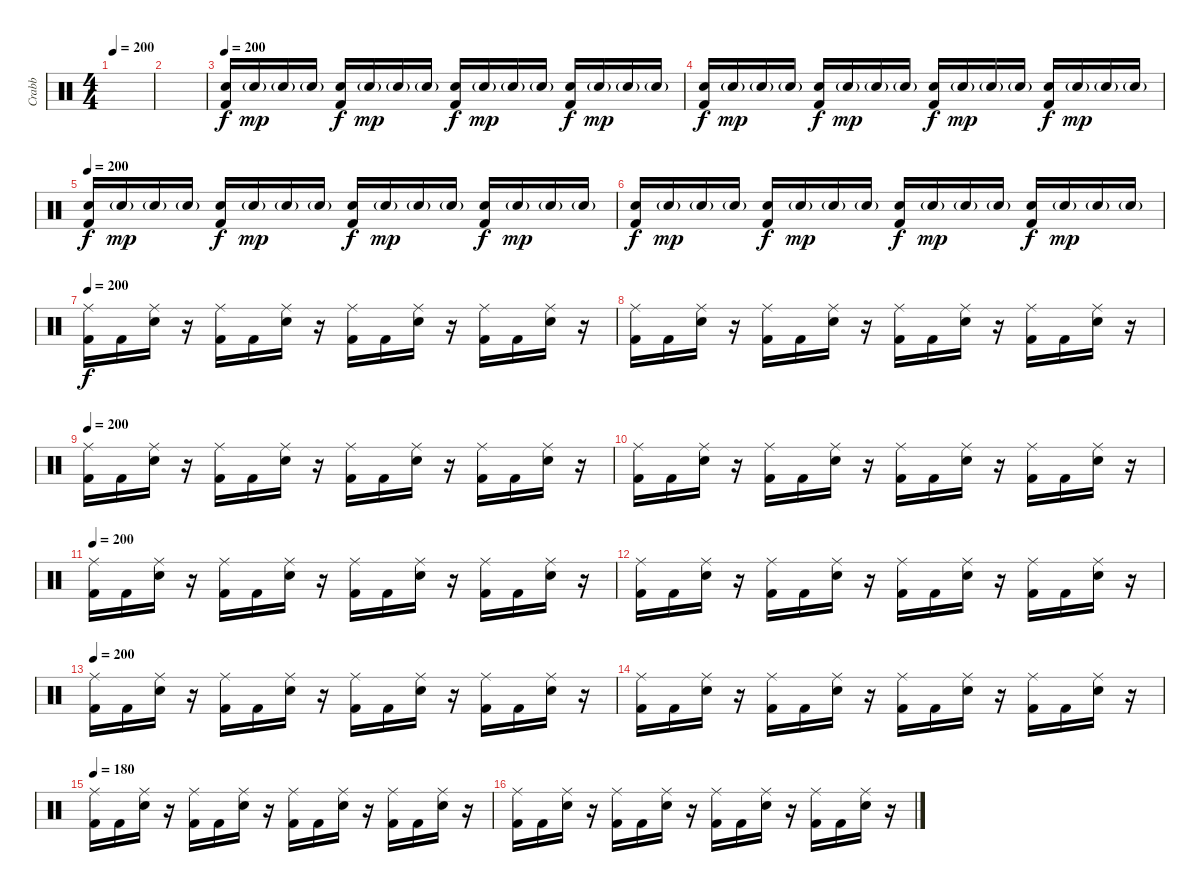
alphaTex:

\track ("Crabb" "Crabb") {instrument percussion}
\staff {score}
\articulation defaults
\ts (4 4)
\tempo 200
\clef neutral
\ks c
|
|
\tempo 200
("Electric Snare (hit)" "Kick (hit) 2").16 "Electric Snare (hit)"{g}.16{dy mp} "Electric Snare (hit)"{g}.16 "Electric Snare (hit)"{g}.16 ("Electric Snare (hit)" "Kick (hit) 2").16{dy f} "Electric Snare (hit)"{g}.16{dy mp} "Electric Snare (hit)"{g}.16 "Electric Snare (hit)"{g}.16 ("Electric Snare (hit)" "Kick (hit) 2").16{dy f} "Electric Snare (hit)"{g}.16{dy mp} "Electric Snare (hit)"{g}.16 "Electric Snare (hit)"{g}.16 ("Electric Snare (hit)" "Kick (hit) 2").16{dy f} "Electric Snare (hit)"{g}.16{dy mp} "Electric Snare (hit)"{g}.16 "Electric Snare (hit)"{g}.16 |
("Electric Snare (hit)" "Kick (hit) 2").16{dy f} "Electric Snare (hit)"{g}.16{dy mp} "Electric Snare (hit)"{g}.16 "Electric Snare (hit)"{g}.16 ("Electric Snare (hit)" "Kick (hit) 2").16{dy f} "Electric Snare (hit)"{g}.16{dy mp} "Electric Snare (hit)"{g}.16 "Electric Snare (hit)"{g}.16 ("Electric Snare (hit)" "Kick (hit) 2").16{dy f} "Electric Snare (hit)"{g}.16{dy mp} "Electric Snare (hit)"{g}.16 "Electric Snare (hit)"{g}.16 ("Electric Snare (hit)" "Kick (hit) 2").16{dy f} "Electric Snare (hit)"{g}.16{dy mp} "Electric Snare (hit)"{g}.16 "Electric Snare (hit)"{g}.16 |
\tempo 200
("Electric Snare (hit)" "Kick (hit) 2").16{dy f} "Electric Snare (hit)"{g}.16{dy mp} "Electric Snare (hit)"{g}.16 "Electric Snare (hit)"{g}.16 ("Electric Snare (hit)" "Kick (hit) 2").16{dy f} "Electric Snare (hit)"{g}.16{dy mp} "Electric Snare (hit)"{g}.16 "Electric Snare (hit)"{g}.16 ("Electric Snare (hit)" "Kick (hit) 2").16{dy f} "Electric Snare (hit)"{g}.16{dy mp} "Electric Snare (hit)"{g}.16 "Electric Snare (hit)"{g}.16 ("Electric Snare (hit)" "Kick (hit) 2").16{dy f} "Electric Snare (hit)"{g}.16{dy mp} "Electric Snare (hit)"{g}.16 "Electric Snare (hit)"{g}.16 |
("Electric Snare (hit)" "Kick (hit) 2").16{dy f} "Electric Snare (hit)"{g}.16{dy mp} "Electric Snare (hit)"{g}.16 "Electric Snare (hit)"{g}.16 ("Electric Snare (hit)" "Kick (hit) 2").16{dy f} "Electric Snare (hit)"{g}.16{dy mp} "Electric Snare (hit)"{g}.16 "Electric Snare (hit)"{g}.16 ("Electric Snare (hit)" "Kick (hit) 2").16{dy f} "Electric Snare (hit)"{g}.16{dy mp} "Electric Snare (hit)"{g}.16 "Electric Snare (hit)"{g}.16 ("Electric Snare (hit)" "Kick (hit) 2").16{dy f} "Electric Snare (hit)"{g}.16{dy mp} "Electric Snare (hit)"{g}.16 "Electric Snare (hit)"{g}.16 |
\tempo 200
("Ride (middle)" "Kick (hit) 2").16{dy f} "Kick (hit) 2".16 ("Ride (middle)" "Electric Snare (hit)").16 r.16 ("Ride (middle)" "Kick (hit) 2").16 "Kick (hit) 2".16 ("Ride (middle)" "Electric Snare (hit)").16 r.16 ("Ride (middle)" "Kick (hit) 2").16 "Kick (hit) 2".16 ("Ride (middle)" "Electric Snare (hit)").16 r.16 ("Ride (middle)" "Kick (hit) 2").16 "Kick (hit) 2".16 ("Ride (middle)" "Electric Snare (hit)").16 r.16 |
("Ride (middle)" "Kick (hit) 2").16 "Kick (hit) 2".16 ("Ride (middle)" "Electric Snare (hit)").16 r.16 ("Ride (middle)" "Kick (hit) 2").16 "Kick (hit) 2".16 ("Ride (middle)" "Electric Snare (hit)").16 r.16 ("Ride (middle)" "Kick (hit) 2").16 "Kick (hit) 2".16 ("Ride (middle)" "Electric Snare (hit)").16 r.16 ("Ride (middle)" "Kick (hit) 2").16 "Kick (hit) 2".16 ("Ride (middle)" "Electric Snare (hit)").16 r.16 |
\tempo 200
("Ride (middle)" "Kick (hit) 2").16 "Kick (hit) 2".16 ("Ride (middle)" "Electric Snare (hit)").16 r.16 ("Ride (middle)" "Kick (hit) 2").16 "Kick (hit) 2".16 ("Ride (middle)" "Electric Snare (hit)").16 r.16 ("Ride (middle)" "Kick (hit) 2").16 "Kick (hit) 2".16 ("Ride (middle)" "Electric Snare (hit)").16 r.16 ("Ride (middle)" "Kick (hit) 2").16 "Kick (hit) 2".16 ("Ride (middle)" "Electric Snare (hit)").16 r.16 |
("Ride (middle)" "Kick (hit) 2").16 "Kick (hit) 2".16 ("Ride (middle)" "Electric Snare (hit)").16 r.16 ("Ride (middle)" "Kick (hit) 2").16 "Kick (hit) 2".16 ("Ride (middle)" "Electric Snare (hit)").16 r.16 ("Ride (middle)" "Kick (hit) 2").16 "Kick (hit) 2".16 ("Ride (middle)" "Electric Snare (hit)").16 r.16 ("Ride (middle)" "Kick (hit) 2").16 "Kick (hit) 2".16 ("Ride (middle)" "Electric Snare (hit)").16 r.16 |
\tempo 200
("Ride (middle)" "Kick (hit) 2").16 "Kick (hit) 2".16 ("Ride (middle)" "Electric Snare (hit)").16 r.16 ("Ride (middle)" "Kick (hit) 2").16 "Kick (hit) 2".16 ("Ride (middle)" "Electric Snare (hit)").16 r.16 ("Ride (middle)" "Kick (hit) 2").16 "Kick (hit) 2".16 ("Ride (middle)" "Electric Snare (hit)").16 r.16 ("Ride (middle)" "Kick (hit) 2").16 "Kick (hit) 2".16 ("Ride (middle)" "Electric Snare (hit)").16 r.16 |
("Ride (middle)" "Kick (hit) 2").16 "Kick (hit) 2".16 ("Ride (middle)" "Electric Snare (hit)").16 r.16 ("Ride (middle)" "Kick (hit) 2").16 "Kick (hit) 2".16 ("Ride (middle)" "Electric Snare (hit)").16 r.16 ("Ride (middle)" "Kick (hit) 2").16 "Kick (hit) 2".16 ("Ride (middle)" "Electric Snare (hit)").16 r.16 ("Ride (middle)" "Kick (hit) 2").16 "Kick (hit) 2".16 ("Ride (middle)" "Electric Snare (hit)").16 r.16 |
\tempo 200
("Ride (middle)" "Kick (hit) 2").16 "Kick (hit) 2".16 ("Ride (middle)" "Electric Snare (hit)").16 r.16 ("Ride (middle)" "Kick (hit) 2").16 "Kick (hit) 2".16 ("Ride (middle)" "Electric Snare (hit)").16 r.16 ("Ride (middle)" "Kick (hit) 2").16 "Kick (hit) 2".16 ("Ride (middle)" "Electric Snare (hit)").16 r.16 ("Ride (middle)" "Kick (hit) 2").16 "Kick (hit) 2".16 ("Ride (middle)" "Electric Snare (hit)").16 r.16 |
("Ride (middle)" "Kick (hit) 2").16 "Kick (hit) 2".16 ("Ride (middle)" "Electric Snare (hit)").16 r.16 ("Ride (middle)" "Kick (hit) 2").16 "Kick (hit) 2".16 ("Ride (middle)" "Electric Snare (hit)").16 r.16 ("Ride (middle)" "Kick (hit) 2").16 "Kick (hit) 2".16 ("Ride (middle)" "Electric Snare (hit)").16 r.16 ("Ride (middle)" "Kick (hit) 2").16 "Kick (hit) 2".16 ("Ride (middle)" "Electric Snare (hit)").16 r.16 |
\tempo 180
("Ride (middle)" "Kick (hit) 2").16 "Kick (hit) 2".16 ("Ride (middle)" "Electric Snare (hit)").16 r.16 ("Ride (middle)" "Kick (hit) 2").16 "Kick (hit) 2".16 ("Ride (middle)" "Electric Snare (hit)").16 r.16 ("Ride (middle)" "Kick (hit) 2").16 "Kick (hit) 2".16 ("Ride (middle)" "Electric Snare (hit)").16 r.16 ("Ride (middle)" "Kick (hit) 2").16 "Kick (hit) 2".16 ("Ride (middle)" "Electric Snare (hit)").16 r.16 |
("Ride (middle)" "Kick (hit) 2").16 "Kick (hit) 2".16 ("Ride (middle)" "Electric Snare (hit)").16 r.16 ("Ride (middle)" "Kick (hit) 2").16 "Kick (hit) 2".16 ("Ride (middle)" "Electric Snare (hit)").16 r.16 ("Ride (middle)" "Kick (hit) 2").16 "Kick (hit) 2".16 ("Ride (middle)" "Electric Snare (hit)").16 r.16 ("Ride (middle)" "Kick (hit) 2").16 "Kick (hit) 2".16 ("Ride (middle)" "Electric Snare (hit)").16 r.16
